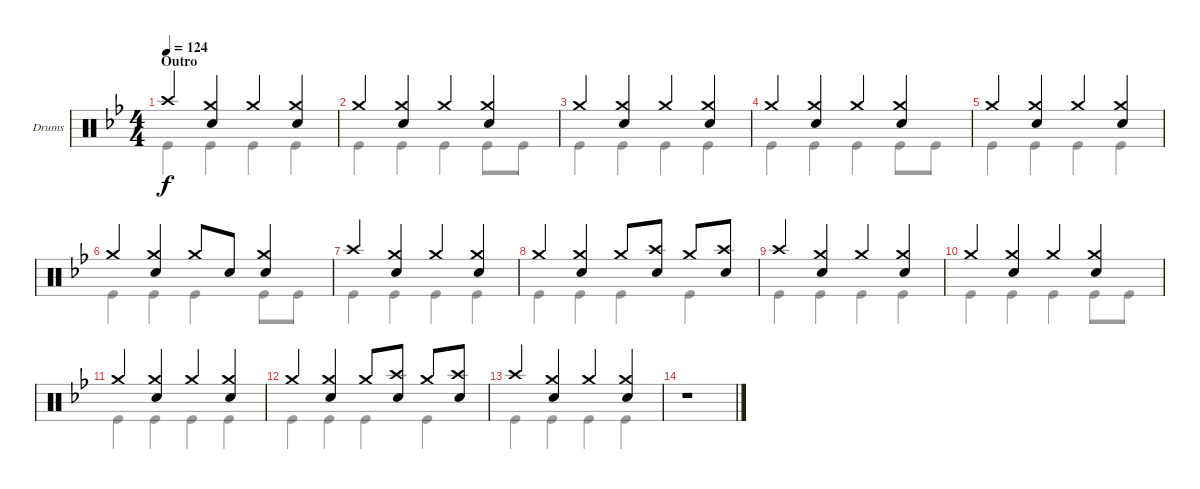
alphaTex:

\defaultSystemsLayout 4
\bracketExtendMode groupsimilarinstruments
\firstSystemTrackNameOrientation horizontal
\otherSystemsTrackNameOrientation horizontal
\track ("Drums" "Drums") {instrument percussion}
\staff {score}
\articulation defaults
\voice
\ts (4 4)
\section ("" "Outro")
\tempo 124
\clef neutral
\ks gminor "Crash high (hit)".4{dy f}
("Crash medium (hit)" "Snare (hit) 2").4 "Crash medium (hit)".4 ("Crash medium (hit)" "Snare (hit) 2").4 |
"Crash medium (hit)".4 ("Crash medium (hit)" "Snare (hit) 2").4 "Crash medium (hit)".4 ("Crash medium (hit)" "Snare (hit) 2").4 |
"Crash medium (hit)".4 ("Crash medium (hit)" "Snare (hit) 2").4 "Crash medium (hit)".4 ("Crash medium (hit)" "Snare (hit) 2").4 |
"Crash medium (hit)".4 ("Crash medium (hit)" "Snare (hit) 2").4 "Crash medium (hit)".4 ("Crash medium (hit)" "Snare (hit) 2").4 |
"Crash medium (hit)".4 ("Crash medium (hit)" "Snare (hit) 2").4 "Crash medium (hit)".4 ("Crash medium (hit)" "Snare (hit) 2").4 |
"Crash medium (hit)".4 ("Crash medium (hit)" "Snare (hit) 2").4 "Crash medium (hit)".8 "Snare (hit) 2".8 ("Snare (hit) 2" "Crash medium (hit)").4 |
"Crash high (hit)".4 ("Crash medium (hit)" "Snare (hit) 2").4 "Crash medium (hit)".4 ("Crash medium (hit)" "Snare (hit) 2").4 |
"Crash medium (hit)".4 ("Crash medium (hit)" "Snare (hit) 2").4 "Crash medium (hit)".8 ("Snare (hit) 2" "Crash high (hit)").8 "Crash medium (hit)".8 ("Snare (hit) 2" "Crash high (hit)").8 |
"Crash high (hit)".4 ("Crash medium (hit)" "Snare (hit) 2").4 "Crash medium (hit)".4 ("Crash medium (hit)" "Snare (hit) 2").4 |
"Crash medium (hit)".4 ("Crash medium (hit)" "Snare (hit) 2").4 "Crash medium (hit)".4 ("Crash medium (hit)" "Snare (hit) 2").4 |
"Crash medium (hit)".4 ("Crash medium (hit)" "Snare (hit) 2").4 "Crash medium (hit)".4 ("Crash medium (hit)" "Snare (hit) 2").4 |
"Crash medium (hit)".4 ("Crash medium (hit)" "Snare (hit) 2").4 "Crash medium (hit)".8 ("Snare (hit) 2" "Crash high (hit)").8 "Crash medium (hit)".8 ("Snare (hit) 2" "Crash high (hit)").8 |
"Crash high (hit)".4 ("Crash medium (hit)" "Snare (hit) 2").4 "Crash medium (hit)".4 ("Crash medium (hit)" "Snare (hit) 2").4 |
r.1
\voice
\clef neutral
\ottava regular
\simile none
\ks gminor "Kick (hit)".4{dy f} "Kick (hit)".4 "Kick (hit)".4 "Kick (hit)".4
|
"Kick (hit)".4 "Kick (hit)".4 "Kick (hit)".4 "Kick (hit)".8 "Kick (hit)".8 |
"Kick (hit)".4 "Kick (hit)".4 "Kick (hit)".4 "Kick (hit)".4 |
"Kick (hit)".4 "Kick (hit)".4 "Kick (hit)".4 "Kick (hit)".8 "Kick (hit)".8 |
"Kick (hit)".4 "Kick (hit)".4 "Kick (hit)".4 "Kick (hit)".4 |
"Kick (hit)".4 "Kick (hit)".4 "Kick (hit)".4 "Kick (hit)".8 "Kick (hit)".8 |
"Kick (hit)".4 "Kick (hit)".4 "Kick (hit)".4 "Kick (hit)".4 |
"Kick (hit)".4 "Kick (hit)".4 "Kick (hit)".4 "Kick (hit)".4 |
"Kick (hit)".4 "Kick (hit)".4 "Kick (hit)".4 "Kick (hit)".4 |
"Kick (hit)".4 "Kick (hit)".4 "Kick (hit)".4 "Kick (hit)".8 "Kick (hit)".8 |
"Kick (hit)".4 "Kick (hit)".4 "Kick (hit)".4 "Kick (hit)".4 |
"Kick (hit)".4 "Kick (hit)".4 "Kick (hit)".4 "Kick (hit)".4 |
"Kick (hit)".4 "Kick (hit)".4 "Kick (hit)".4 "Kick (hit)".4 |
r.1
